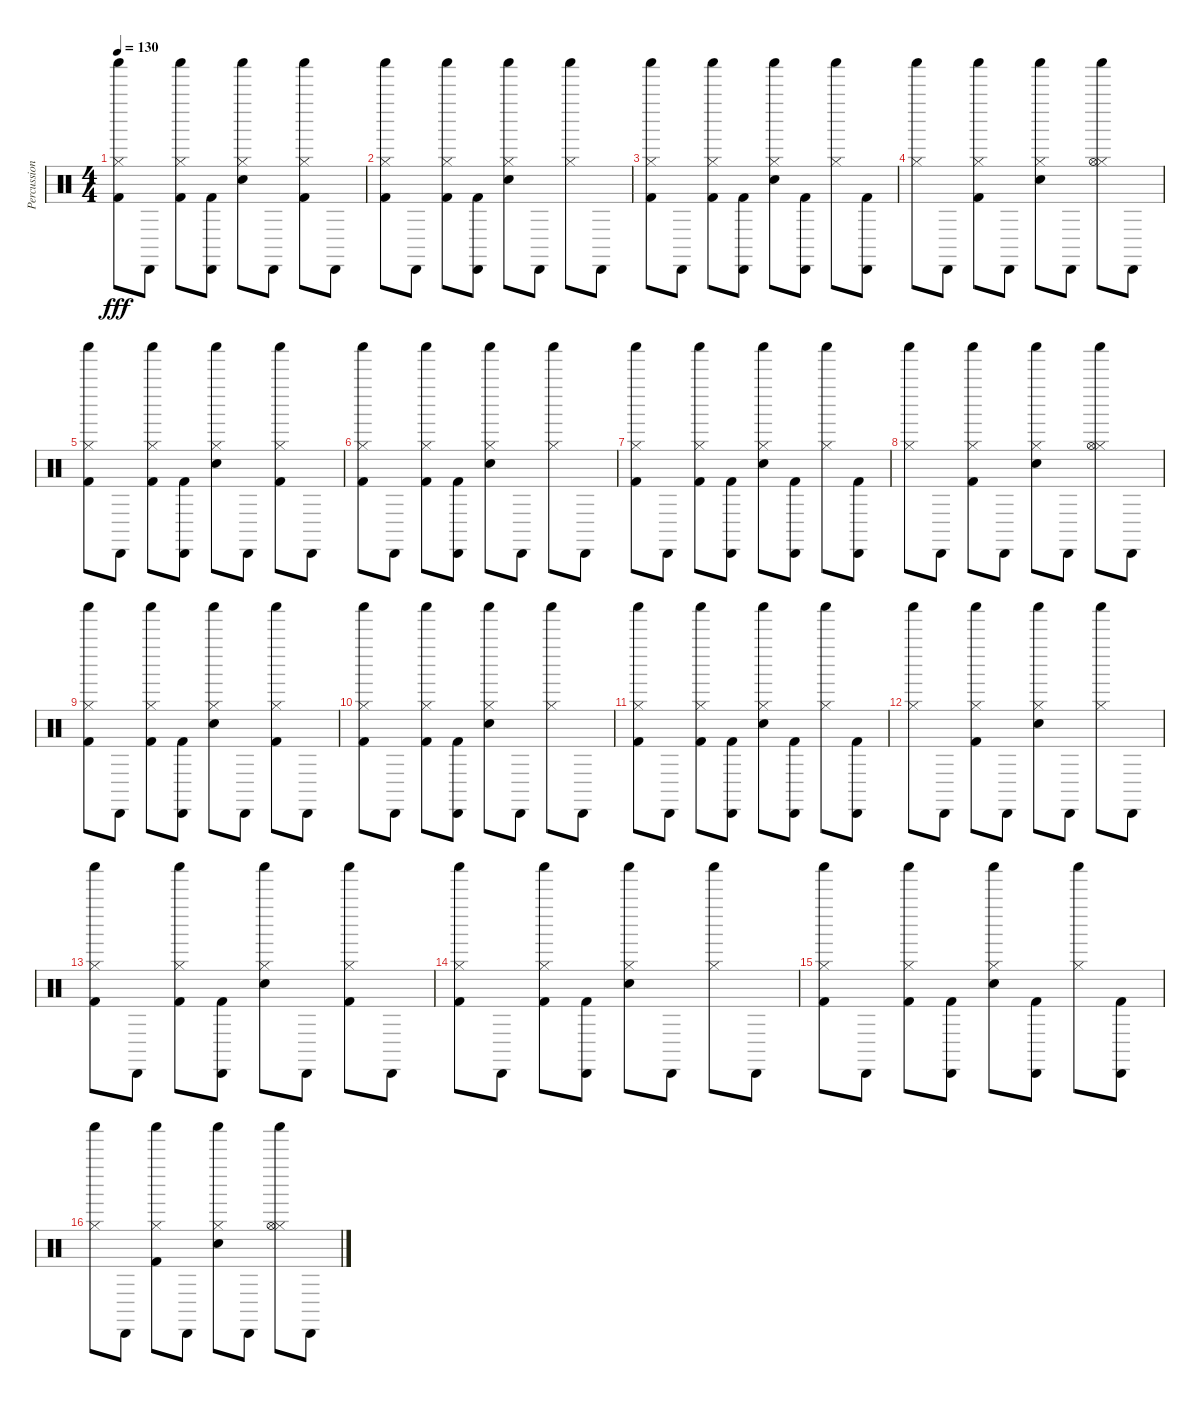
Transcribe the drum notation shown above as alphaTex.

\track ("Percussion" "Percussion") {instrument percussion}
\staff {score}
\articulation defaults
\ts (4 4)
\tempo 130
\clef neutral
\ks c
("Shaker (hit)" "Hi-Hat (closed)" "Kick (hit) 2").8{dy fff} "Cabasa (hit)".8 ("Shaker (hit)" "Hi-Hat (closed)" "Kick (hit) 2").8 ("Cabasa (hit)" "Kick (hit) 2").8 ("Shaker (hit)" "Hi-Hat (closed)" "Snare (hit) 2").8 "Cabasa (hit)".8 ("Shaker (hit)" "Hi-Hat (closed)" "Kick (hit) 2").8 "Cabasa (hit)".8 |
("Shaker (hit)" "Hi-Hat (closed)" "Kick (hit) 2").8 "Cabasa (hit)".8 ("Shaker (hit)" "Hi-Hat (closed)" "Kick (hit) 2").8 ("Cabasa (hit)" "Kick (hit) 2").8 ("Shaker (hit)" "Hi-Hat (closed)" "Snare (hit) 2").8 "Cabasa (hit)".8 ("Shaker (hit)" "Hi-Hat (closed)").8 "Cabasa (hit)".8 |
("Shaker (hit)" "Hi-Hat (closed)" "Kick (hit) 2").8 "Cabasa (hit)".8 ("Shaker (hit)" "Hi-Hat (closed)" "Kick (hit) 2").8 ("Cabasa (hit)" "Kick (hit) 2").8 ("Shaker (hit)" "Hi-Hat (closed)" "Snare (hit) 2").8 ("Cabasa (hit)" "Kick (hit) 2").8 ("Shaker (hit)" "Hi-Hat (closed)").8 ("Cabasa (hit)" "Kick (hit) 2").8 |
("Shaker (hit)" "Hi-Hat (closed)").8 "Cabasa (hit)".8 ("Shaker (hit)" "Hi-Hat (closed)" "Kick (hit) 2").8 "Cabasa (hit)".8 ("Shaker (hit)" "Hi-Hat (closed)" "Snare (hit) 2").8 "Cabasa (hit)".8 ("Shaker (hit)" "Hi-Hat (closed)" "Hi-Hat (open)").8 "Cabasa (hit)".8 |
("Shaker (hit)" "Hi-Hat (closed)" "Kick (hit) 2").8 "Cabasa (hit)".8 ("Shaker (hit)" "Hi-Hat (closed)" "Kick (hit) 2").8 ("Cabasa (hit)" "Kick (hit) 2").8 ("Shaker (hit)" "Hi-Hat (closed)" "Snare (hit) 2").8 "Cabasa (hit)".8 ("Shaker (hit)" "Hi-Hat (closed)" "Kick (hit) 2").8 "Cabasa (hit)".8 |
("Shaker (hit)" "Hi-Hat (closed)" "Kick (hit) 2").8 "Cabasa (hit)".8 ("Shaker (hit)" "Hi-Hat (closed)" "Kick (hit) 2").8 ("Cabasa (hit)" "Kick (hit) 2").8 ("Shaker (hit)" "Hi-Hat (closed)" "Snare (hit) 2").8 "Cabasa (hit)".8 ("Shaker (hit)" "Hi-Hat (closed)").8 "Cabasa (hit)".8 |
("Shaker (hit)" "Hi-Hat (closed)" "Kick (hit) 2").8 "Cabasa (hit)".8 ("Shaker (hit)" "Hi-Hat (closed)" "Kick (hit) 2").8 ("Cabasa (hit)" "Kick (hit) 2").8 ("Shaker (hit)" "Hi-Hat (closed)" "Snare (hit) 2").8 ("Cabasa (hit)" "Kick (hit) 2").8 ("Shaker (hit)" "Hi-Hat (closed)").8 ("Cabasa (hit)" "Kick (hit) 2").8 |
("Shaker (hit)" "Hi-Hat (closed)").8 "Cabasa (hit)".8 ("Shaker (hit)" "Hi-Hat (closed)" "Kick (hit) 2").8 "Cabasa (hit)".8 ("Shaker (hit)" "Hi-Hat (closed)" "Snare (hit) 2").8 "Cabasa (hit)".8 ("Shaker (hit)" "Hi-Hat (closed)" "Hi-Hat (open)").8 "Cabasa (hit)".8 |
("Shaker (hit)" "Hi-Hat (closed)" "Kick (hit) 2").8 "Cabasa (hit)".8 ("Shaker (hit)" "Hi-Hat (closed)" "Kick (hit) 2").8 ("Cabasa (hit)" "Kick (hit) 2").8 ("Shaker (hit)" "Hi-Hat (closed)" "Snare (hit) 2").8 "Cabasa (hit)".8 ("Shaker (hit)" "Hi-Hat (closed)" "Kick (hit) 2").8 "Cabasa (hit)".8 |
("Shaker (hit)" "Hi-Hat (closed)" "Kick (hit) 2").8 "Cabasa (hit)".8 ("Shaker (hit)" "Hi-Hat (closed)" "Kick (hit) 2").8 ("Cabasa (hit)" "Kick (hit) 2").8 ("Shaker (hit)" "Hi-Hat (closed)" "Snare (hit) 2").8 "Cabasa (hit)".8 ("Shaker (hit)" "Hi-Hat (closed)").8 "Cabasa (hit)".8 |
("Shaker (hit)" "Hi-Hat (closed)" "Kick (hit) 2").8 "Cabasa (hit)".8 ("Shaker (hit)" "Hi-Hat (closed)" "Kick (hit) 2").8 ("Cabasa (hit)" "Kick (hit) 2").8 ("Shaker (hit)" "Hi-Hat (closed)" "Snare (hit) 2").8 ("Cabasa (hit)" "Kick (hit) 2").8 ("Shaker (hit)" "Hi-Hat (closed)").8 ("Cabasa (hit)" "Kick (hit) 2").8 |
("Shaker (hit)" "Hi-Hat (closed)").8 "Cabasa (hit)".8 ("Shaker (hit)" "Hi-Hat (closed)" "Kick (hit) 2").8 "Cabasa (hit)".8 ("Shaker (hit)" "Hi-Hat (closed)" "Snare (hit) 2").8 "Cabasa (hit)".8 ("Shaker (hit)" "Hi-Hat (closed)").8 "Cabasa (hit)".8 |
("Shaker (hit)" "Hi-Hat (closed)" "Kick (hit) 2").8 "Cabasa (hit)".8 ("Shaker (hit)" "Hi-Hat (closed)" "Kick (hit) 2").8 ("Cabasa (hit)" "Kick (hit) 2").8 ("Shaker (hit)" "Hi-Hat (closed)" "Snare (hit) 2").8 "Cabasa (hit)".8 ("Shaker (hit)" "Hi-Hat (closed)" "Kick (hit) 2").8 "Cabasa (hit)".8 |
("Shaker (hit)" "Hi-Hat (closed)" "Kick (hit) 2").8 "Cabasa (hit)".8 ("Shaker (hit)" "Hi-Hat (closed)" "Kick (hit) 2").8 ("Cabasa (hit)" "Kick (hit) 2").8 ("Shaker (hit)" "Hi-Hat (closed)" "Snare (hit) 2").8 "Cabasa (hit)".8 ("Shaker (hit)" "Hi-Hat (closed)").8 "Cabasa (hit)".8 |
("Shaker (hit)" "Hi-Hat (closed)" "Kick (hit) 2").8 "Cabasa (hit)".8 ("Shaker (hit)" "Hi-Hat (closed)" "Kick (hit) 2").8 ("Cabasa (hit)" "Kick (hit) 2").8 ("Shaker (hit)" "Hi-Hat (closed)" "Snare (hit) 2").8 ("Cabasa (hit)" "Kick (hit) 2").8 ("Shaker (hit)" "Hi-Hat (closed)").8 ("Cabasa (hit)" "Kick (hit) 2").8 |
("Shaker (hit)" "Hi-Hat (closed)").8 "Cabasa (hit)".8 ("Shaker (hit)" "Hi-Hat (closed)" "Kick (hit) 2").8 "Cabasa (hit)".8 ("Shaker (hit)" "Hi-Hat (closed)" "Snare (hit) 2").8 "Cabasa (hit)".8 ("Shaker (hit)" "Hi-Hat (closed)" "Hi-Hat (open)").8 "Cabasa (hit)".8
